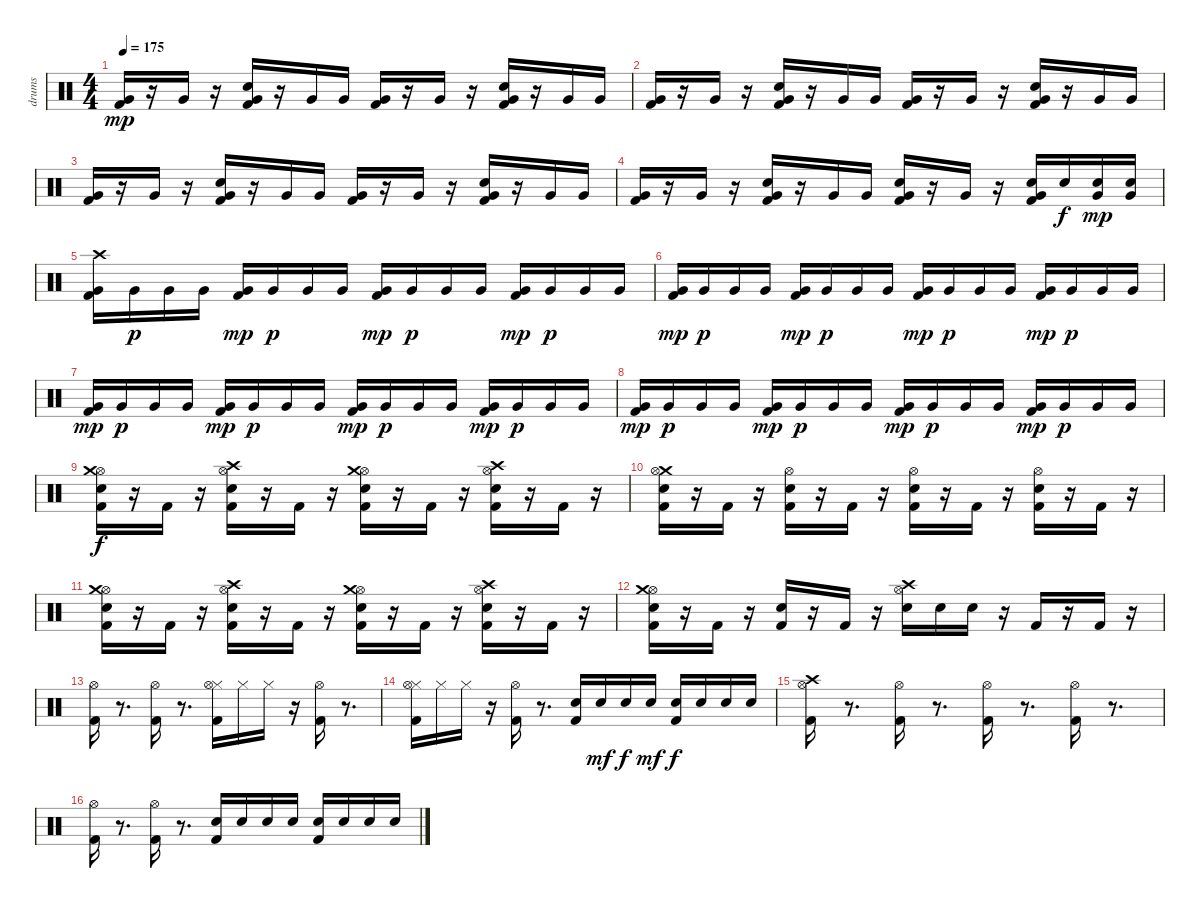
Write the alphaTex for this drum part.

\track ("drums" "drums") {instrument percussion}
\staff {score}
\articulation defaults
\ts (4 4)
\tempo 175
\clef neutral
\ks c
("Kick (hit) 2" "Very Low Tom (hit)").16{dy mp} r.16 "Very Low Tom (hit)".16 r.16 ("Electric Snare (hit)" "Kick (hit) 2" "Very Low Tom (hit)").16 r.16 "Very Low Tom (hit)".16 "Very Low Tom (hit)".16 ("Kick (hit) 2" "Very Low Tom (hit)").16 r.16 "Very Low Tom (hit)".16 r.16 ("Electric Snare (hit)" "Kick (hit) 2" "Very Low Tom (hit)").16 r.16 "Very Low Tom (hit)".16 "Very Low Tom (hit)".16 |
("Kick (hit) 2" "Very Low Tom (hit)").16 r.16 "Very Low Tom (hit)".16 r.16 ("Electric Snare (hit)" "Kick (hit) 2" "Very Low Tom (hit)").16 r.16 "Very Low Tom (hit)".16 "Very Low Tom (hit)".16 ("Kick (hit) 2" "Very Low Tom (hit)").16 r.16 "Very Low Tom (hit)".16 r.16 ("Electric Snare (hit)" "Kick (hit) 2" "Very Low Tom (hit)").16 r.16 "Very Low Tom (hit)".16 "Very Low Tom (hit)".16 |
("Kick (hit) 2" "Very Low Tom (hit)").16 r.16 "Very Low Tom (hit)".16 r.16 ("Electric Snare (hit)" "Kick (hit) 2" "Very Low Tom (hit)").16 r.16 "Very Low Tom (hit)".16 "Very Low Tom (hit)".16 ("Kick (hit) 2" "Very Low Tom (hit)").16 r.16 "Very Low Tom (hit)".16 r.16 ("Electric Snare (hit)" "Kick (hit) 2" "Very Low Tom (hit)").16 r.16 "Very Low Tom (hit)".16 "Very Low Tom (hit)".16 |
("Kick (hit) 2" "Very Low Tom (hit)").16 r.16 "Very Low Tom (hit)".16 r.16 ("Electric Snare (hit)" "Kick (hit) 2" "Very Low Tom (hit)").16 r.16 "Very Low Tom (hit)".16 "Very Low Tom (hit)".16 ("Kick (hit) 2" "Electric Snare (hit)" "Very Low Tom (hit)").16 r.16 "Very Low Tom (hit)".16 r.16 ("Electric Snare (hit)" "Kick (hit) 2" "Very Low Tom (hit)").16 "Electric Snare (hit)".16{dy f} ("Electric Snare (hit)" "Very Low Tom (hit)").16{dy mp} ("Electric Snare (hit)" "Very Low Tom (hit)").16 |
("Crash high (hit)" "Very Low Tom (hit)" "Kick (hit) 2").16 "Very Low Tom (hit)".16{dy p} "Very Low Tom (hit)".16 "Very Low Tom (hit)".16 ("Very Low Tom (hit)" "Kick (hit) 2").16{dy mp} "Very Low Tom (hit)".16{dy p} "Very Low Tom (hit)".16 "Very Low Tom (hit)".16 ("Very Low Tom (hit)" "Kick (hit) 2").16{dy mp} "Very Low Tom (hit)".16{dy p} "Very Low Tom (hit)".16 "Very Low Tom (hit)".16 ("Very Low Tom (hit)" "Kick (hit) 2").16{dy mp} "Very Low Tom (hit)".16{dy p} "Very Low Tom (hit)".16 "Very Low Tom (hit)".16 |
("Very Low Tom (hit)" "Kick (hit) 2").16{dy mp} "Very Low Tom (hit)".16{dy p} "Very Low Tom (hit)".16 "Very Low Tom (hit)".16 ("Very Low Tom (hit)" "Kick (hit) 2").16{dy mp} "Very Low Tom (hit)".16{dy p} "Very Low Tom (hit)".16 "Very Low Tom (hit)".16 ("Very Low Tom (hit)" "Kick (hit) 2").16{dy mp} "Very Low Tom (hit)".16{dy p} "Very Low Tom (hit)".16 "Very Low Tom (hit)".16 ("Very Low Tom (hit)" "Kick (hit) 2").16{dy mp} "Very Low Tom (hit)".16{dy p} "Very Low Tom (hit)".16 "Very Low Tom (hit)".16 |
("Very Low Tom (hit)" "Kick (hit) 2").16{dy mp} "Very Low Tom (hit)".16{dy p} "Very Low Tom (hit)".16 "Very Low Tom (hit)".16 ("Very Low Tom (hit)" "Kick (hit) 2").16{dy mp} "Very Low Tom (hit)".16{dy p} "Very Low Tom (hit)".16 "Very Low Tom (hit)".16 ("Very Low Tom (hit)" "Kick (hit) 2").16{dy mp} "Very Low Tom (hit)".16{dy p} "Very Low Tom (hit)".16 "Very Low Tom (hit)".16 ("Very Low Tom (hit)" "Kick (hit) 2").16{dy mp} "Very Low Tom (hit)".16{dy p} "Very Low Tom (hit)".16 "Very Low Tom (hit)".16 |
("Very Low Tom (hit)" "Kick (hit) 2").16{dy mp} "Very Low Tom (hit)".16{dy p} "Very Low Tom (hit)".16 "Very Low Tom (hit)".16 ("Very Low Tom (hit)" "Kick (hit) 2").16{dy mp} "Very Low Tom (hit)".16{dy p} "Very Low Tom (hit)".16 "Very Low Tom (hit)".16 ("Very Low Tom (hit)" "Kick (hit) 2").16{dy mp} "Very Low Tom (hit)".16{dy p} "Very Low Tom (hit)".16 "Very Low Tom (hit)".16 ("Very Low Tom (hit)" "Kick (hit) 2").16{dy mp} "Very Low Tom (hit)".16{dy p} "Very Low Tom (hit)".16 "Very Low Tom (hit)".16 |
("Hi-Hat (open)" "Electric Snare (hit)" "Kick (hit) 2" "Crash medium (hit)").16{dy f} r.16 "Kick (hit) 2".16 r.16 ("Hi-Hat (open)" "Electric Snare (hit)" "Kick (hit) 2" "Crash high (hit)").16 r.16 "Kick (hit) 2".16 r.16 ("Hi-Hat (open)" "Electric Snare (hit)" "Kick (hit) 2" "Crash medium (hit)").16 r.16 "Kick (hit) 2".16 r.16 ("Hi-Hat (open)" "Electric Snare (hit)" "Kick (hit) 2" "Crash high (hit)").16 r.16 "Kick (hit) 2".16 r.16 |
("Crash medium (hit)" "Hi-Hat (open)" "Electric Snare (hit)" "Kick (hit) 2").16 r.16 "Kick (hit) 2".16 r.16 ("Hi-Hat (open)" "Electric Snare (hit)" "Kick (hit) 2").16 r.16 "Kick (hit) 2".16 r.16 ("Hi-Hat (open)" "Electric Snare (hit)" "Kick (hit) 2").16 r.16 "Kick (hit) 2".16 r.16 ("Hi-Hat (open)" "Electric Snare (hit)" "Kick (hit) 2").16 r.16 "Kick (hit) 2".16 r.16 |
("Hi-Hat (open)" "Electric Snare (hit)" "Kick (hit) 2" "Crash medium (hit)").16 r.16 "Kick (hit) 2".16 r.16 ("Hi-Hat (open)" "Electric Snare (hit)" "Kick (hit) 2" "Crash high (hit)").16 r.16 "Kick (hit) 2".16 r.16 ("Hi-Hat (open)" "Electric Snare (hit)" "Kick (hit) 2" "Crash medium (hit)").16 r.16 "Kick (hit) 2".16 r.16 ("Hi-Hat (open)" "Electric Snare (hit)" "Kick (hit) 2" "Crash high (hit)").16 r.16 "Kick (hit) 2".16 r.16 |
("Hi-Hat (open)" "Crash medium (hit)" "Electric Snare (hit)" "Kick (hit) 2").16 r.16 "Kick (hit) 2".16 r.16 ("Electric Snare (hit)" "Kick (hit) 2").16 r.16 "Kick (hit) 2".16 r.16 ("Crash high (hit)" "Hi-Hat (open)" "Electric Snare (hit)").16 "Electric Snare (hit)".16 "Electric Snare (hit)".16 r.16 "Kick (hit) 2".16 r.16 "Kick (hit) 2".16 r.16 |
("Hi-Hat (open)" "Kick (hit) 2").16 r.8{d} ("Hi-Hat (open)" "Kick (hit) 2").16 r.8{d} ("Hi-Hat (closed)" "Hi-Hat (open)" "Kick (hit) 2").16 "Hi-Hat (closed)".16 "Hi-Hat (closed)".16 r.16 ("Hi-Hat (open)" "Kick (hit) 2").16 r.8{d} |
("Hi-Hat (closed)" "Kick (hit) 2" "Hi-Hat (open)").16 "Hi-Hat (closed)".16 "Hi-Hat (closed)".16 r.16 ("Kick (hit) 2" "Hi-Hat (open)").16 r.8{d} ("Kick (hit) 2" "Electric Snare (hit)").16 "Electric Snare (hit)".16{dy mf} "Electric Snare (hit)".16{dy f} "Electric Snare (hit)".16{dy mf} ("Kick (hit) 2" "Electric Snare (hit)").16{dy f} "Electric Snare (hit)".16 "Electric Snare (hit)".16 "Electric Snare (hit)".16 |
("Hi-Hat (open)" "Kick (hit) 2" "Crash high (hit)").16 r.8{d} ("Kick (hit) 2" "Hi-Hat (open)").16 r.8{d} ("Kick (hit) 2" "Hi-Hat (open)").16 r.8{d} ("Kick (hit) 2" "Hi-Hat (open)").16 r.8{d} |
("Kick (hit) 2" "Hi-Hat (open)").16 r.8{d} ("Kick (hit) 2" "Hi-Hat (open)").16 r.8{d} ("Electric Snare (hit)" "Kick (hit) 2").16 "Electric Snare (hit)".16 "Electric Snare (hit)".16 "Electric Snare (hit)".16 ("Electric Snare (hit)" "Kick (hit) 2").16 "Electric Snare (hit)".16 "Electric Snare (hit)".16 "Electric Snare (hit)".16
